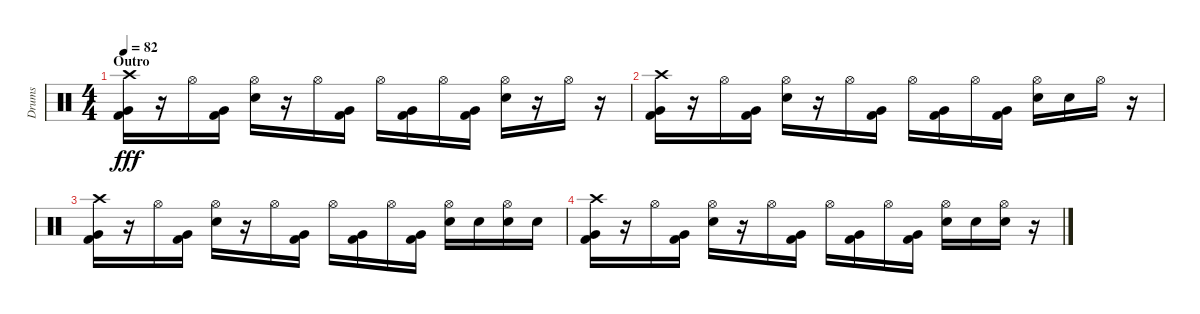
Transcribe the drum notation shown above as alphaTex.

\track ("Drums" "Drums") {instrument percussion}
\staff {score}
\articulation defaults
\ts (4 4)
\section ("" "Outro")
\tempo 82
\clef neutral
\ks c
("Crash high (hit)" "Very Low Tom (hit)" "Kick (hit) 2").16{dy fff} r.16 "Hi-Hat (open)".16 ("Very Low Tom (hit)" "Kick (hit) 2").16 ("Hi-Hat (open)" "Electric Snare (hit)").16 r.16 "Hi-Hat (open)".16 ("Very Low Tom (hit)" "Kick (hit) 2").16 "Hi-Hat (open)".16 ("Very Low Tom (hit)" "Kick (hit) 2").16 "Hi-Hat (open)".16 ("Very Low Tom (hit)" "Kick (hit) 2").16 ("Hi-Hat (open)" "Electric Snare (hit)").16 r.16 "Hi-Hat (open)".16 r.16 |
("Crash high (hit)" "Very Low Tom (hit)" "Kick (hit) 2").16 r.16 "Hi-Hat (open)".16 ("Very Low Tom (hit)" "Kick (hit) 2").16 ("Hi-Hat (open)" "Electric Snare (hit)").16 r.16 "Hi-Hat (open)".16 ("Very Low Tom (hit)" "Kick (hit) 2").16 "Hi-Hat (open)".16 ("Very Low Tom (hit)" "Kick (hit) 2").16 "Hi-Hat (open)".16 ("Very Low Tom (hit)" "Kick (hit) 2").16 ("Hi-Hat (open)" "Electric Snare (hit)").16 "Electric Snare (hit)".16 "Hi-Hat (open)".16 r.16 |
("Crash high (hit)" "Very Low Tom (hit)" "Kick (hit) 2").16 r.16 "Hi-Hat (open)".16 ("Very Low Tom (hit)" "Kick (hit) 2").16 ("Hi-Hat (open)" "Electric Snare (hit)").16 r.16 "Hi-Hat (open)".16 ("Very Low Tom (hit)" "Kick (hit) 2").16 "Hi-Hat (open)".16 ("Very Low Tom (hit)" "Kick (hit) 2").16 "Hi-Hat (open)".16 ("Very Low Tom (hit)" "Kick (hit) 2").16 ("Hi-Hat (open)" "Electric Snare (hit)").16 "Electric Snare (hit)".16 ("Hi-Hat (open)" "Electric Snare (hit)").16 "Electric Snare (hit)".16 |
("Crash high (hit)" "Very Low Tom (hit)" "Kick (hit) 2").16 r.16 "Hi-Hat (open)".16 ("Very Low Tom (hit)" "Kick (hit) 2").16 ("Hi-Hat (open)" "Electric Snare (hit)").16 r.16 "Hi-Hat (open)".16 ("Very Low Tom (hit)" "Kick (hit) 2").16 "Hi-Hat (open)".16 ("Very Low Tom (hit)" "Kick (hit) 2").16 "Hi-Hat (open)".16 ("Very Low Tom (hit)" "Kick (hit) 2").16 ("Hi-Hat (open)" "Electric Snare (hit)").16 "Electric Snare (hit)".16 ("Hi-Hat (open)" "Electric Snare (hit)").16 r.16
